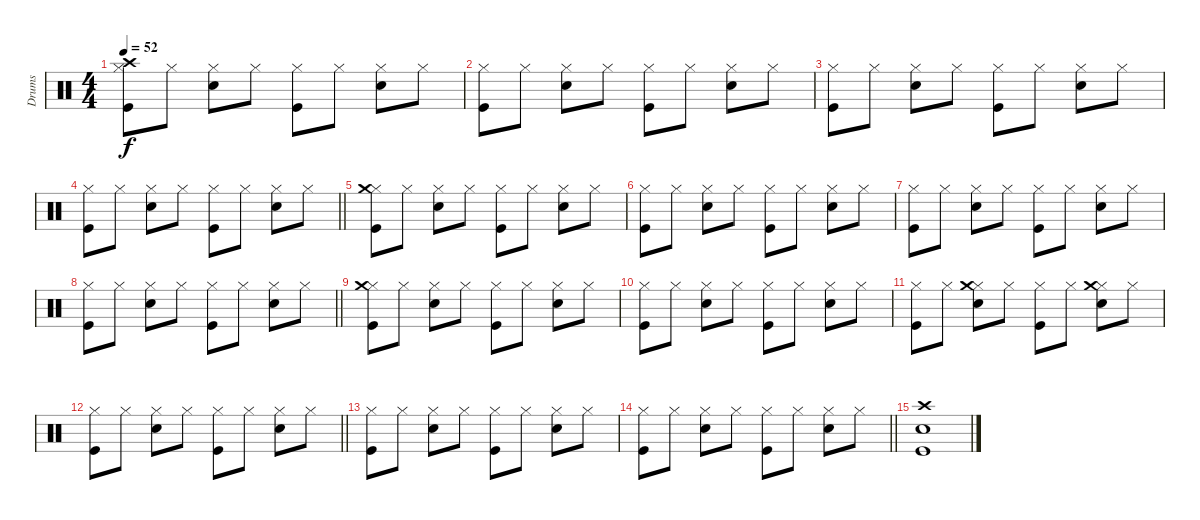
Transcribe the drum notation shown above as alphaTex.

\track ("Drums" "Drums") {instrument percussion}
\staff {score}
\articulation defaults
\ts (4 4)
\tempo 52
\clef neutral
\ks c
("Kick (hit)" "Hi-Hat (closed)" "Crash high (hit)").8{dy f} "Hi-Hat (closed)".8 ("Snare (hit) 2" "Hi-Hat (closed)").8 "Hi-Hat (closed)".8 ("Kick (hit)" "Hi-Hat (closed)").8 "Hi-Hat (closed)".8 ("Snare (hit) 2" "Hi-Hat (closed)").8 "Hi-Hat (closed)".8 |
("Kick (hit)" "Hi-Hat (closed)").8 "Hi-Hat (closed)".8 ("Snare (hit) 2" "Hi-Hat (closed)").8 "Hi-Hat (closed)".8 ("Kick (hit)" "Hi-Hat (closed)").8 "Hi-Hat (closed)".8 ("Snare (hit) 2" "Hi-Hat (closed)").8 "Hi-Hat (closed)".8 |
("Kick (hit)" "Hi-Hat (closed)").8 "Hi-Hat (closed)".8 ("Snare (hit) 2" "Hi-Hat (closed)").8 "Hi-Hat (closed)".8 ("Kick (hit)" "Hi-Hat (closed)").8 "Hi-Hat (closed)".8 ("Snare (hit) 2" "Hi-Hat (closed)").8 "Hi-Hat (closed)".8 |
\barLineRight lightlight
("Kick (hit)" "Hi-Hat (closed)").8 "Hi-Hat (closed)".8 ("Snare (hit) 2" "Hi-Hat (closed)").8 "Hi-Hat (closed)".8 ("Kick (hit)" "Hi-Hat (closed)").8 "Hi-Hat (closed)".8 ("Snare (hit) 2" "Hi-Hat (closed)").8 "Hi-Hat (closed)".8 |
("Kick (hit)" "Hi-Hat (closed)" "Crash medium (hit)").8 "Hi-Hat (closed)".8 ("Snare (hit) 2" "Hi-Hat (closed)").8 "Hi-Hat (closed)".8 ("Kick (hit)" "Hi-Hat (closed)").8 "Hi-Hat (closed)".8 ("Snare (hit) 2" "Hi-Hat (closed)").8 "Hi-Hat (closed)".8 |
("Kick (hit)" "Hi-Hat (closed)").8 "Hi-Hat (closed)".8 ("Snare (hit) 2" "Hi-Hat (closed)").8 "Hi-Hat (closed)".8 ("Kick (hit)" "Hi-Hat (closed)").8 "Hi-Hat (closed)".8 ("Snare (hit) 2" "Hi-Hat (closed)").8 "Hi-Hat (closed)".8 |
("Kick (hit)" "Hi-Hat (closed)").8 "Hi-Hat (closed)".8 ("Snare (hit) 2" "Hi-Hat (closed)").8 "Hi-Hat (closed)".8 ("Kick (hit)" "Hi-Hat (closed)").8 "Hi-Hat (closed)".8 ("Snare (hit) 2" "Hi-Hat (closed)").8 "Hi-Hat (closed)".8 |
\barLineRight lightlight
("Kick (hit)" "Hi-Hat (closed)").8 "Hi-Hat (closed)".8 ("Snare (hit) 2" "Hi-Hat (closed)").8 "Hi-Hat (closed)".8 ("Kick (hit)" "Hi-Hat (closed)").8 "Hi-Hat (closed)".8 ("Snare (hit) 2" "Hi-Hat (closed)").8 "Hi-Hat (closed)".8 |
("Kick (hit)" "Hi-Hat (closed)" "Crash medium (hit)").8 "Hi-Hat (closed)".8 ("Snare (hit) 2" "Hi-Hat (closed)").8 "Hi-Hat (closed)".8 ("Kick (hit)" "Hi-Hat (closed)").8 "Hi-Hat (closed)".8 ("Snare (hit) 2" "Hi-Hat (closed)").8 "Hi-Hat (closed)".8 |
("Kick (hit)" "Hi-Hat (closed)").8 "Hi-Hat (closed)".8 ("Snare (hit) 2" "Hi-Hat (closed)").8 "Hi-Hat (closed)".8 ("Kick (hit)" "Hi-Hat (closed)").8 "Hi-Hat (closed)".8 ("Snare (hit) 2" "Hi-Hat (closed)").8 "Hi-Hat (closed)".8 |
("Kick (hit)" "Hi-Hat (closed)").8 "Hi-Hat (closed)".8 ("Snare (hit) 2" "Hi-Hat (closed)" "Crash medium (hit)").8 "Hi-Hat (closed)".8 ("Kick (hit)" "Hi-Hat (closed)").8 "Hi-Hat (closed)".8 ("Snare (hit) 2" "Hi-Hat (closed)" "Crash medium (hit)").8 "Hi-Hat (closed)".8 |
\barLineRight lightlight
("Kick (hit)" "Hi-Hat (closed)").8 "Hi-Hat (closed)".8 ("Snare (hit) 2" "Hi-Hat (closed)").8 "Hi-Hat (closed)".8 ("Kick (hit)" "Hi-Hat (closed)").8 "Hi-Hat (closed)".8 ("Snare (hit) 2" "Hi-Hat (closed)").8 "Hi-Hat (closed)".8 |
("Kick (hit)" "Hi-Hat (closed)").8 "Hi-Hat (closed)".8 ("Snare (hit) 2" "Hi-Hat (closed)").8 "Hi-Hat (closed)".8 ("Kick (hit)" "Hi-Hat (closed)").8 "Hi-Hat (closed)".8 ("Snare (hit) 2" "Hi-Hat (closed)").8 "Hi-Hat (closed)".8 |
\barLineRight lightlight
("Kick (hit)" "Hi-Hat (closed)").8 "Hi-Hat (closed)".8 ("Snare (hit) 2" "Hi-Hat (closed)").8 "Hi-Hat (closed)".8 ("Kick (hit)" "Hi-Hat (closed)").8 "Hi-Hat (closed)".8 ("Snare (hit) 2" "Hi-Hat (closed)").8 "Hi-Hat (closed)".8 |
("Crash high (hit)" "Snare (hit)" "Kick (hit)").1
